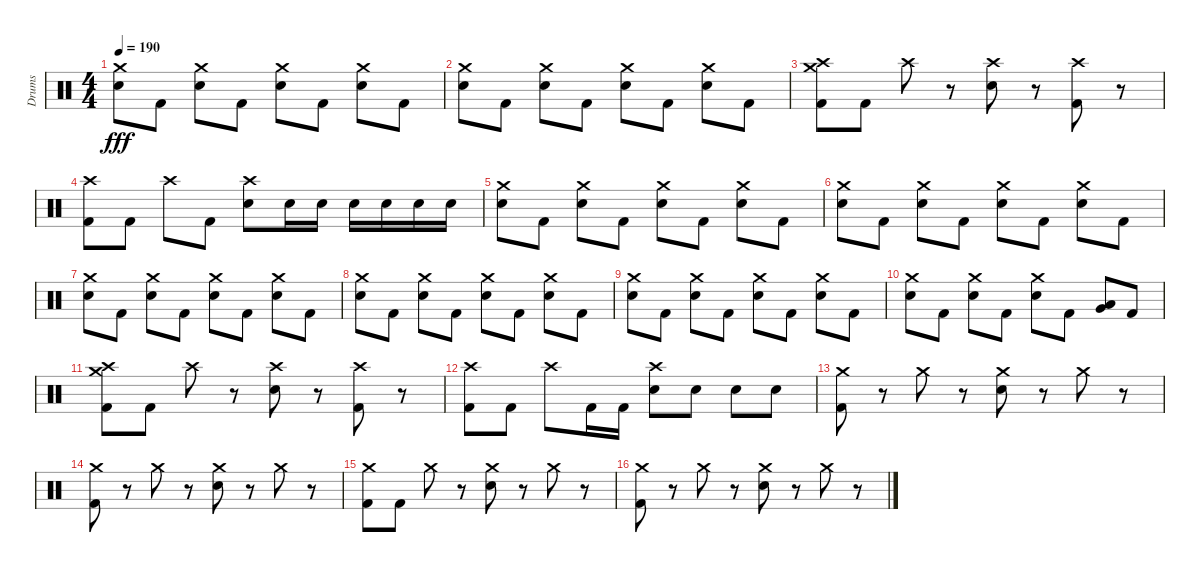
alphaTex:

\track ("Drums" "Drums") {instrument percussion}
\staff {score}
\articulation defaults
\ts (4 4)
\tempo 190
\clef neutral
\ks c
("Crash medium (hit)" "Electric Snare (hit)").8{dy fff} "Kick (hit) 2".8 ("Crash medium (hit)" "Electric Snare (hit)").8 "Kick (hit) 2".8 ("Crash medium (hit)" "Electric Snare (hit)").8 "Kick (hit) 2".8 ("Crash medium (hit)" "Electric Snare (hit)").8 "Kick (hit) 2".8 |
("Crash medium (hit)" "Electric Snare (hit)").8 "Kick (hit) 2".8 ("Crash medium (hit)" "Electric Snare (hit)").8 "Kick (hit) 2".8 ("Crash medium (hit)" "Electric Snare (hit)").8 "Kick (hit) 2".8 ("Crash medium (hit)" "Electric Snare (hit)").8 "Kick (hit) 2".8 |
("Crash high (hit)" "Crash medium (hit)" "Kick (hit) 2").8 "Kick (hit) 2".8 "Crash high (hit)".8 r.8 ("Crash high (hit)" "Electric Snare (hit)").8 r.8 ("Crash high (hit)" "Kick (hit) 2").8 r.8 |
("Crash high (hit)" "Kick (hit) 2").8 "Kick (hit) 2".8 "Crash high (hit)".8 "Kick (hit) 2".8 ("Crash high (hit)" "Electric Snare (hit)").8 "Electric Snare (hit)".16 "Electric Snare (hit)".16 "Electric Snare (hit)".16 "Electric Snare (hit)".16 "Electric Snare (hit)".16 "Electric Snare (hit)".16 |
("Crash medium (hit)" "Electric Snare (hit)").8 "Kick (hit) 2".8 ("Crash medium (hit)" "Electric Snare (hit)").8 "Kick (hit) 2".8 ("Crash medium (hit)" "Electric Snare (hit)").8 "Kick (hit) 2".8 ("Crash medium (hit)" "Electric Snare (hit)").8 "Kick (hit) 2".8 |
("Crash medium (hit)" "Electric Snare (hit)").8 "Kick (hit) 2".8 ("Crash medium (hit)" "Electric Snare (hit)").8 "Kick (hit) 2".8 ("Crash medium (hit)" "Electric Snare (hit)").8 "Kick (hit) 2".8 ("Crash medium (hit)" "Electric Snare (hit)").8 "Kick (hit) 2".8 |
("Crash medium (hit)" "Electric Snare (hit)").8 "Kick (hit) 2".8 ("Crash medium (hit)" "Electric Snare (hit)").8 "Kick (hit) 2".8 ("Crash medium (hit)" "Electric Snare (hit)").8 "Kick (hit) 2".8 ("Crash medium (hit)" "Electric Snare (hit)").8 "Kick (hit) 2".8 |
("Crash medium (hit)" "Electric Snare (hit)").8 "Kick (hit) 2".8 ("Crash medium (hit)" "Electric Snare (hit)").8 "Kick (hit) 2".8 ("Crash medium (hit)" "Electric Snare (hit)").8 "Kick (hit) 2".8 ("Crash medium (hit)" "Electric Snare (hit)").8 "Kick (hit) 2".8 |
("Crash medium (hit)" "Electric Snare (hit)").8 "Kick (hit) 2".8 ("Crash medium (hit)" "Electric Snare (hit)").8 "Kick (hit) 2".8 ("Crash medium (hit)" "Electric Snare (hit)").8 "Kick (hit) 2".8 ("Crash medium (hit)" "Electric Snare (hit)").8 "Kick (hit) 2".8 |
("Crash medium (hit)" "Electric Snare (hit)").8 "Kick (hit) 2".8 ("Crash medium (hit)" "Electric Snare (hit)").8 "Kick (hit) 2".8 ("Crash medium (hit)" "Electric Snare (hit)").8 "Kick (hit) 2".8 ("Very Low Tom (hit)" "Low Floor Tom (hit)").8 "Kick (hit) 2".8 |
("Crash high (hit)" "Crash medium (hit)" "Kick (hit) 2").8 "Kick (hit) 2".8 "Crash high (hit)".8 r.8 ("Crash high (hit)" "Electric Snare (hit)").8 r.8 ("Crash high (hit)" "Kick (hit) 2").8 r.8 |
("Crash high (hit)" "Kick (hit) 2").8 "Kick (hit) 2".8 "Crash high (hit)".8 "Kick (hit) 2".16 "Kick (hit) 2".16 ("Crash high (hit)" "Electric Snare (hit)").8 "Electric Snare (hit)".8 "Electric Snare (hit)".8 "Electric Snare (hit)".8 |
("Crash medium (hit)" "Kick (hit) 2").8 r.8 "Crash medium (hit)".8 r.8 ("Crash medium (hit)" "Electric Snare (hit)").8 r.8 "Crash medium (hit)".8 r.8 |
("Crash medium (hit)" "Kick (hit) 2").8 r.8 "Crash medium (hit)".8 r.8 ("Crash medium (hit)" "Electric Snare (hit)").8 r.8 "Crash medium (hit)".8 r.8 |
("Crash medium (hit)" "Kick (hit) 2").8 "Kick (hit) 2".8 "Crash medium (hit)".8 r.8 ("Crash medium (hit)" "Electric Snare (hit)").8 r.8 "Crash medium (hit)".8 r.8 |
("Crash medium (hit)" "Kick (hit) 2").8 r.8 "Crash medium (hit)".8 r.8 ("Crash medium (hit)" "Electric Snare (hit)").8 r.8 "Crash medium (hit)".8 r.8
